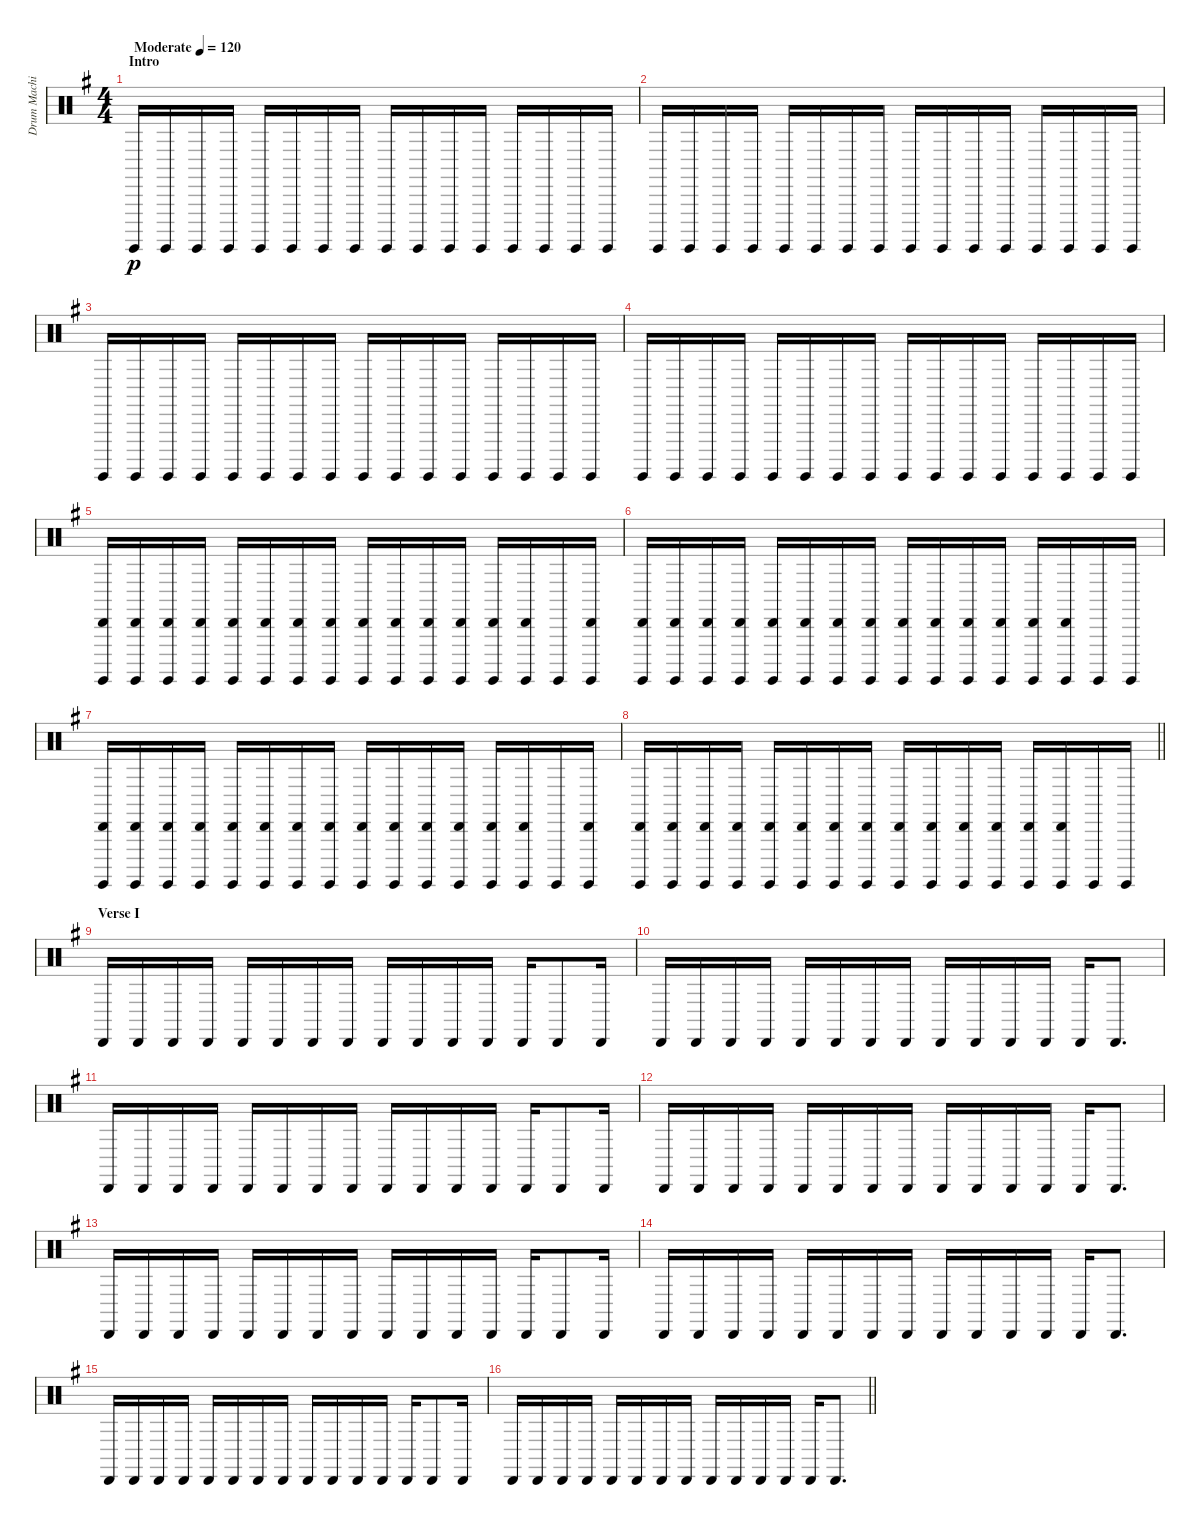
\track ("Drum Machine" "Drum Machi") {instrument percussion}
\staff {score}
\articulation defaults
\ts (4 4)
\section ("" "Intro")
\tempo (120 "Moderate")
\clef neutral
\ks g "Surdo (hit)".16{dy p} "Surdo (hit)".16 "Surdo (hit)".16 "Surdo (hit)".16 "Surdo (hit)".16 "Surdo (hit)".16 "Surdo (hit)".16 "Surdo (hit)".16 "Surdo (hit)".16 "Surdo (hit)".16 "Surdo (hit)".16 "Surdo (hit)".16 "Surdo (hit)".16 "Surdo (hit)".16 "Surdo (hit)".16 "Surdo (hit)".16
|
"Surdo (hit)".16 "Surdo (hit)".16 "Surdo (hit)".16 "Surdo (hit)".16 "Surdo (hit)".16 "Surdo (hit)".16 "Surdo (hit)".16 "Surdo (hit)".16 "Surdo (hit)".16 "Surdo (hit)".16 "Surdo (hit)".16 "Surdo (hit)".16 "Surdo (hit)".16 "Surdo (hit)".16 "Surdo (hit)".16 "Surdo (hit)".16 |
"Surdo (hit)".16 "Surdo (hit)".16 "Surdo (hit)".16 "Surdo (hit)".16 "Surdo (hit)".16 "Surdo (hit)".16 "Surdo (hit)".16 "Surdo (hit)".16 "Surdo (hit)".16 "Surdo (hit)".16 "Surdo (hit)".16 "Surdo (hit)".16 "Surdo (hit)".16 "Surdo (hit)".16 "Surdo (hit)".16 "Surdo (hit)".16 |
"Surdo (hit)".16 "Surdo (hit)".16 "Surdo (hit)".16 "Surdo (hit)".16 "Surdo (hit)".16 "Surdo (hit)".16 "Surdo (hit)".16 "Surdo (hit)".16 "Surdo (hit)".16 "Surdo (hit)".16 "Surdo (hit)".16 "Surdo (hit)".16 "Surdo (hit)".16 "Surdo (hit)".16 "Surdo (hit)".16 "Surdo (hit)".16 |
("Cabasa (hit)" "Surdo (hit)").16 ("Cabasa (hit)" "Surdo (hit)").16 ("Cabasa (hit)" "Surdo (hit)").16 ("Cabasa (hit)" "Surdo (hit)").16 ("Cabasa (hit)" "Surdo (hit)").16 ("Cabasa (hit)" "Surdo (hit)").16 ("Cabasa (hit)" "Surdo (hit)").16 ("Cabasa (hit)" "Surdo (hit)").16 ("Cabasa (hit)" "Surdo (hit)").16 ("Cabasa (hit)" "Surdo (hit)").16 ("Cabasa (hit)" "Surdo (hit)").16 ("Cabasa (hit)" "Surdo (hit)").16 ("Cabasa (hit)" "Surdo (hit)").16 ("Cabasa (hit)" "Surdo (hit)").16 "Surdo (hit)".16 ("Cabasa (hit)" "Surdo (hit)").16 |
("Cabasa (hit)" "Surdo (hit)").16 ("Cabasa (hit)" "Surdo (hit)").16 ("Cabasa (hit)" "Surdo (hit)").16 ("Cabasa (hit)" "Surdo (hit)").16 ("Cabasa (hit)" "Surdo (hit)").16 ("Cabasa (hit)" "Surdo (hit)").16 ("Cabasa (hit)" "Surdo (hit)").16 ("Cabasa (hit)" "Surdo (hit)").16 ("Cabasa (hit)" "Surdo (hit)").16 ("Cabasa (hit)" "Surdo (hit)").16 ("Cabasa (hit)" "Surdo (hit)").16 ("Cabasa (hit)" "Surdo (hit)").16 ("Cabasa (hit)" "Surdo (hit)").16 ("Cabasa (hit)" "Surdo (hit)").16 "Surdo (hit)".16 "Surdo (hit)".16 |
("Cabasa (hit)" "Surdo (hit)").16 ("Cabasa (hit)" "Surdo (hit)").16 ("Cabasa (hit)" "Surdo (hit)").16 ("Cabasa (hit)" "Surdo (hit)").16 ("Cabasa (hit)" "Surdo (hit)").16 ("Cabasa (hit)" "Surdo (hit)").16 ("Cabasa (hit)" "Surdo (hit)").16 ("Cabasa (hit)" "Surdo (hit)").16 ("Cabasa (hit)" "Surdo (hit)").16 ("Cabasa (hit)" "Surdo (hit)").16 ("Cabasa (hit)" "Surdo (hit)").16 ("Cabasa (hit)" "Surdo (hit)").16 ("Cabasa (hit)" "Surdo (hit)").16 ("Cabasa (hit)" "Surdo (hit)").16 "Surdo (hit)".16 ("Cabasa (hit)" "Surdo (hit)").16 |
\barLineRight lightlight
("Cabasa (hit)" "Surdo (hit)").16 ("Cabasa (hit)" "Surdo (hit)").16 ("Cabasa (hit)" "Surdo (hit)").16 ("Cabasa (hit)" "Surdo (hit)").16 ("Cabasa (hit)" "Surdo (hit)").16 ("Cabasa (hit)" "Surdo (hit)").16 ("Cabasa (hit)" "Surdo (hit)").16 ("Cabasa (hit)" "Surdo (hit)").16 ("Cabasa (hit)" "Surdo (hit)").16 ("Cabasa (hit)" "Surdo (hit)").16 ("Cabasa (hit)" "Surdo (hit)").16 ("Cabasa (hit)" "Surdo (hit)").16 ("Cabasa (hit)" "Surdo (hit)").16 ("Cabasa (hit)" "Surdo (hit)").16 "Surdo (hit)".16 "Surdo (hit)".16 |
\section ("" "Verse I")
"Cabasa (hit)".16 "Cabasa (hit)".16 "Cabasa (hit)".16 "Cabasa (hit)".16 "Cabasa (hit)".16 "Cabasa (hit)".16 "Cabasa (hit)".16 "Cabasa (hit)".16 "Cabasa (hit)".16 "Cabasa (hit)".16 "Cabasa (hit)".16 "Cabasa (hit)".16 "Cabasa (hit)".16 "Cabasa (hit)".8 "Cabasa (hit)".16 |
"Cabasa (hit)".16 "Cabasa (hit)".16 "Cabasa (hit)".16 "Cabasa (hit)".16 "Cabasa (hit)".16 "Cabasa (hit)".16 "Cabasa (hit)".16 "Cabasa (hit)".16 "Cabasa (hit)".16 "Cabasa (hit)".16 "Cabasa (hit)".16 "Cabasa (hit)".16 "Cabasa (hit)".16 "Cabasa (hit)".8{d} |
"Cabasa (hit)".16 "Cabasa (hit)".16 "Cabasa (hit)".16 "Cabasa (hit)".16 "Cabasa (hit)".16 "Cabasa (hit)".16 "Cabasa (hit)".16 "Cabasa (hit)".16 "Cabasa (hit)".16 "Cabasa (hit)".16 "Cabasa (hit)".16 "Cabasa (hit)".16 "Cabasa (hit)".16 "Cabasa (hit)".8 "Cabasa (hit)".16 |
"Cabasa (hit)".16 "Cabasa (hit)".16 "Cabasa (hit)".16 "Cabasa (hit)".16 "Cabasa (hit)".16 "Cabasa (hit)".16 "Cabasa (hit)".16 "Cabasa (hit)".16 "Cabasa (hit)".16 "Cabasa (hit)".16 "Cabasa (hit)".16 "Cabasa (hit)".16 "Cabasa (hit)".16 "Cabasa (hit)".8{d} |
"Cabasa (hit)".16 "Cabasa (hit)".16 "Cabasa (hit)".16 "Cabasa (hit)".16 "Cabasa (hit)".16 "Cabasa (hit)".16 "Cabasa (hit)".16 "Cabasa (hit)".16 "Cabasa (hit)".16 "Cabasa (hit)".16 "Cabasa (hit)".16 "Cabasa (hit)".16 "Cabasa (hit)".16 "Cabasa (hit)".8 "Cabasa (hit)".16 |
"Cabasa (hit)".16 "Cabasa (hit)".16 "Cabasa (hit)".16 "Cabasa (hit)".16 "Cabasa (hit)".16 "Cabasa (hit)".16 "Cabasa (hit)".16 "Cabasa (hit)".16 "Cabasa (hit)".16 "Cabasa (hit)".16 "Cabasa (hit)".16 "Cabasa (hit)".16 "Cabasa (hit)".16 "Cabasa (hit)".8{d} |
"Cabasa (hit)".16 "Cabasa (hit)".16 "Cabasa (hit)".16 "Cabasa (hit)".16 "Cabasa (hit)".16 "Cabasa (hit)".16 "Cabasa (hit)".16 "Cabasa (hit)".16 "Cabasa (hit)".16 "Cabasa (hit)".16 "Cabasa (hit)".16 "Cabasa (hit)".16 "Cabasa (hit)".16 "Cabasa (hit)".8 "Cabasa (hit)".16 |
\barLineRight lightlight "Cabasa (hit)".16 "Cabasa (hit)".16 "Cabasa (hit)".16 "Cabasa (hit)".16 "Cabasa (hit)".16 "Cabasa (hit)".16 "Cabasa (hit)".16 "Cabasa (hit)".16 "Cabasa (hit)".16 "Cabasa (hit)".16 "Cabasa (hit)".16 "Cabasa (hit)".16 "Cabasa (hit)".16 "Cabasa (hit)".8{d}
